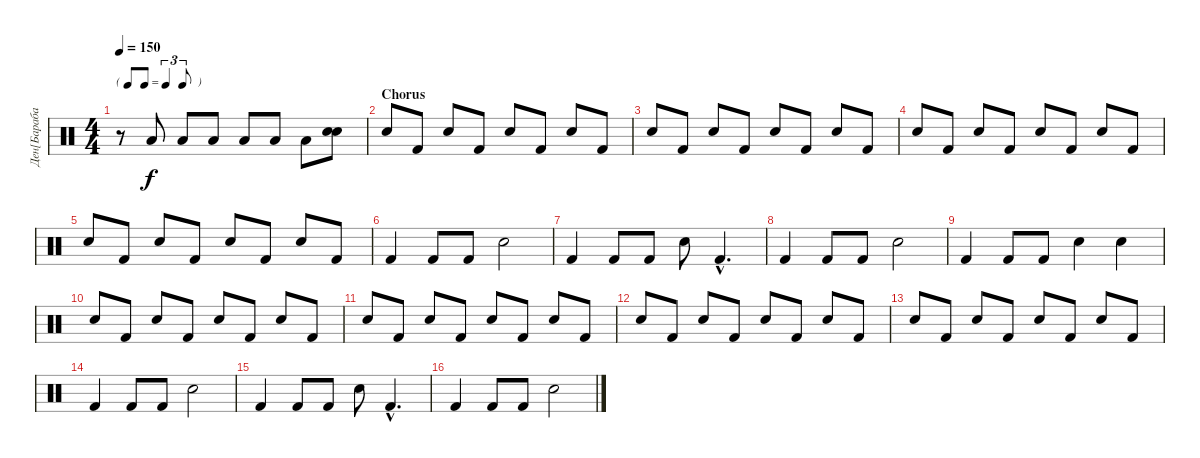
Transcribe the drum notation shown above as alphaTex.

\track ("Ден[Барабаны]" "Ден[Бараба") {instrument percussion}
\staff {score}
\articulation defaults
\ts (4 4)
\tf triplet8th
\tempo 150
\clef neutral
\ks c
r.8{dy f} "Low Floor Tom (hit)".8 "Low Floor Tom (hit)".8 "Low Floor Tom (hit)".8 "Low Floor Tom (hit)".8 "Low Floor Tom (hit)".8 "Low Floor Tom (hit)".8 ("Electric Snare (hit)" "Electric Snare (hit)").8 |
\section ("" "Chorus")
"Electric Snare (hit)".8 "Kick (hit) 2".8 "Electric Snare (hit)".8 "Kick (hit) 2".8 "Electric Snare (hit)".8 "Kick (hit) 2".8 "Electric Snare (hit)".8 "Kick (hit) 2".8 |
"Electric Snare (hit)".8 "Kick (hit) 2".8 "Electric Snare (hit)".8 "Kick (hit) 2".8 "Electric Snare (hit)".8 "Kick (hit) 2".8 "Electric Snare (hit)".8 "Kick (hit) 2".8 |
"Electric Snare (hit)".8 "Kick (hit) 2".8 "Electric Snare (hit)".8 "Kick (hit) 2".8 "Electric Snare (hit)".8 "Kick (hit) 2".8 "Electric Snare (hit)".8 "Kick (hit) 2".8 |
"Electric Snare (hit)".8 "Kick (hit) 2".8 "Electric Snare (hit)".8 "Kick (hit) 2".8 "Electric Snare (hit)".8 "Kick (hit) 2".8 "Electric Snare (hit)".8 "Kick (hit) 2".8 |
"Kick (hit) 2".4 "Kick (hit) 2".8 "Kick (hit) 2".8 "Electric Snare (hit)".2 |
"Kick (hit) 2".4 "Kick (hit) 2".8 "Kick (hit) 2".8 "Electric Snare (hit)".8 "Kick (hit) 2"{hac}.4{d} |
"Kick (hit) 2".4 "Kick (hit) 2".8 "Kick (hit) 2".8 "Electric Snare (hit)".2 |
"Kick (hit) 2".4 "Kick (hit) 2".8 "Kick (hit) 2".8 "Electric Snare (hit)".4 "Electric Snare (hit)".4 |
"Electric Snare (hit)".8 "Kick (hit) 2".8 "Electric Snare (hit)".8 "Kick (hit) 2".8 "Electric Snare (hit)".8 "Kick (hit) 2".8 "Electric Snare (hit)".8 "Kick (hit) 2".8 |
"Electric Snare (hit)".8 "Kick (hit) 2".8 "Electric Snare (hit)".8 "Kick (hit) 2".8 "Electric Snare (hit)".8 "Kick (hit) 2".8 "Electric Snare (hit)".8 "Kick (hit) 2".8 |
"Electric Snare (hit)".8 "Kick (hit) 2".8 "Electric Snare (hit)".8 "Kick (hit) 2".8 "Electric Snare (hit)".8 "Kick (hit) 2".8 "Electric Snare (hit)".8 "Kick (hit) 2".8 |
"Electric Snare (hit)".8 "Kick (hit) 2".8 "Electric Snare (hit)".8 "Kick (hit) 2".8 "Electric Snare (hit)".8 "Kick (hit) 2".8 "Electric Snare (hit)".8 "Kick (hit) 2".8 |
"Kick (hit) 2".4 "Kick (hit) 2".8 "Kick (hit) 2".8 "Electric Snare (hit)".2 |
"Kick (hit) 2".4 "Kick (hit) 2".8 "Kick (hit) 2".8 "Electric Snare (hit)".8 "Kick (hit) 2"{hac}.4{d} |
"Kick (hit) 2".4 "Kick (hit) 2".8 "Kick (hit) 2".8 "Electric Snare (hit)".2
